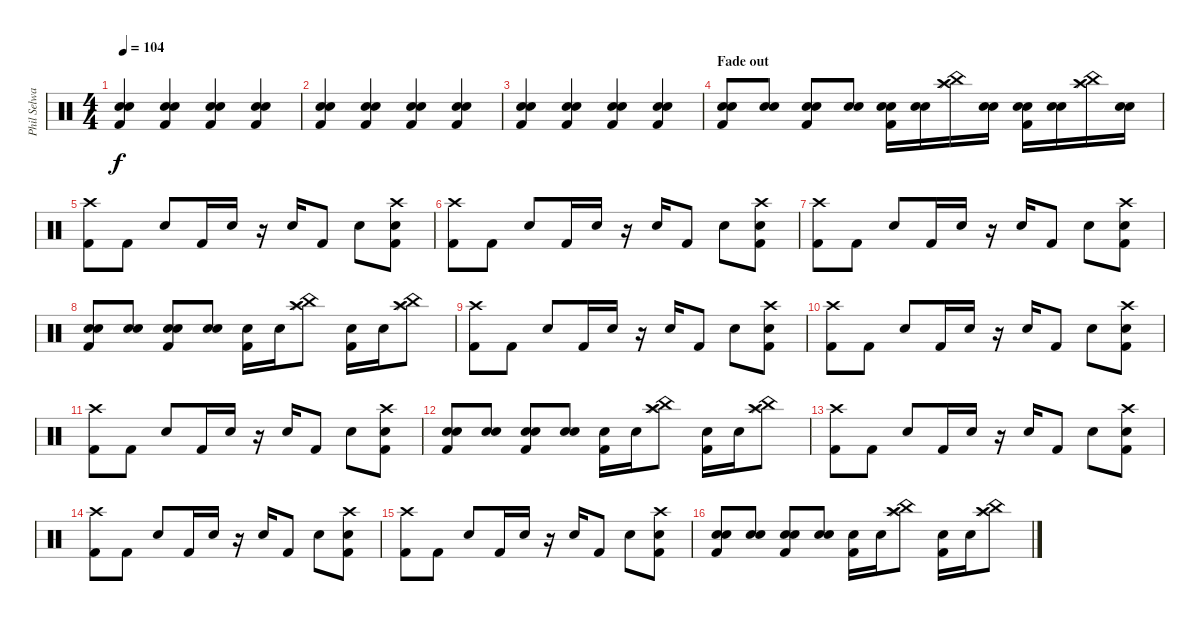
\track ("Phil Selway" "Phil Selwa") {instrument percussion}
\staff {score}
\articulation defaults
\ts (4 4)
\tempo 104
\clef neutral
\ks c
("Kick (hit) 2" "Hand Clap (hit)" "Snare (hit) 2").4{dy f} ("Kick (hit) 2" "Hand Clap (hit)" "Snare (hit) 2").4 ("Kick (hit) 2" "Hand Clap (hit)" "Snare (hit) 2").4 ("Kick (hit) 2" "Hand Clap (hit)" "Snare (hit) 2").4 |
("Kick (hit) 2" "Hand Clap (hit)" "Snare (hit) 2").4 ("Kick (hit) 2" "Hand Clap (hit)" "Snare (hit) 2").4 ("Kick (hit) 2" "Hand Clap (hit)" "Snare (hit) 2").4 ("Kick (hit) 2" "Hand Clap (hit)" "Snare (hit) 2").4 |
("Kick (hit) 2" "Hand Clap (hit)" "Snare (hit) 2").4 ("Kick (hit) 2" "Hand Clap (hit)" "Snare (hit) 2").4 ("Kick (hit) 2" "Hand Clap (hit)" "Snare (hit) 2").4 ("Kick (hit) 2" "Hand Clap (hit)" "Snare (hit) 2").4 |
\section ("" "Fade out")
("Electric Snare (hit)" "Snare (hit) 2" "Kick (hit) 2").8 ("Electric Snare (hit)" "Snare (hit) 2").8 ("Electric Snare (hit)" "Snare (hit) 2" "Kick (hit) 2").8 ("Electric Snare (hit)" "Snare (hit) 2").8 ("Electric Snare (hit)" "Kick (hit) 2" "Snare (hit) 2").16 ("Electric Snare (hit)" "Snare (hit) 2").16 ("Splash (hit)" "China (hit)" "Crash high (hit)").16 ("Electric Snare (hit)" "Snare (hit) 2").16 ("Electric Snare (hit)" "Kick (hit) 2" "Snare (hit) 2").16 ("Electric Snare (hit)" "Snare (hit) 2").16 ("Splash (hit)" "China (hit)" "Crash high (hit)").16 ("Electric Snare (hit)" "Snare (hit) 2").16 |
("Kick (hit) 2" "Crash high (hit)").8 "Kick (hit) 2".8 "Electric Snare (hit)".8 "Kick (hit) 2".16 "Electric Snare (hit)".16 r.16 "Electric Snare (hit)".16 "Kick (hit) 2".8 "Electric Snare (hit)".8 ("Kick (hit) 2" "Crash high (hit)" "Electric Snare (hit)").8 |
("Kick (hit) 2" "Crash high (hit)").8 "Kick (hit) 2".8 "Electric Snare (hit)".8 "Kick (hit) 2".16 "Electric Snare (hit)".16 r.16 "Electric Snare (hit)".16 "Kick (hit) 2".8 "Electric Snare (hit)".8 ("Kick (hit) 2" "Crash high (hit)" "Electric Snare (hit)").8 |
("Kick (hit) 2" "Crash high (hit)").8 "Kick (hit) 2".8 "Electric Snare (hit)".8 "Kick (hit) 2".16 "Electric Snare (hit)".16 r.16 "Electric Snare (hit)".16 "Kick (hit) 2".8 "Electric Snare (hit)".8 ("Kick (hit) 2" "Crash high (hit)" "Electric Snare (hit)").8 |
("Electric Snare (hit)" "Snare (hit) 2" "Kick (hit) 2").8 ("Electric Snare (hit)" "Snare (hit) 2").8 ("Electric Snare (hit)" "Snare (hit) 2" "Kick (hit) 2").8 ("Electric Snare (hit)" "Snare (hit) 2").8 ("Electric Snare (hit)" "Kick (hit) 2").16 "Electric Snare (hit)".16 ("Splash (hit)" "China (hit)" "Crash high (hit)").8 ("Electric Snare (hit)" "Kick (hit) 2").16 "Electric Snare (hit)".16 ("Splash (hit)" "China (hit)" "Crash high (hit)").8 |
("Kick (hit) 2" "Crash high (hit)").8 "Kick (hit) 2".8 "Electric Snare (hit)".8 "Kick (hit) 2".16 "Electric Snare (hit)".16 r.16 "Electric Snare (hit)".16 "Kick (hit) 2".8 "Electric Snare (hit)".8 ("Kick (hit) 2" "Crash high (hit)" "Electric Snare (hit)").8 |
("Kick (hit) 2" "Crash high (hit)").8 "Kick (hit) 2".8 "Electric Snare (hit)".8 "Kick (hit) 2".16 "Electric Snare (hit)".16 r.16 "Electric Snare (hit)".16 "Kick (hit) 2".8 "Electric Snare (hit)".8 ("Kick (hit) 2" "Crash high (hit)" "Electric Snare (hit)").8 |
("Kick (hit) 2" "Crash high (hit)").8 "Kick (hit) 2".8 "Electric Snare (hit)".8 "Kick (hit) 2".16 "Electric Snare (hit)".16 r.16 "Electric Snare (hit)".16 "Kick (hit) 2".8 "Electric Snare (hit)".8 ("Kick (hit) 2" "Crash high (hit)" "Electric Snare (hit)").8 |
("Electric Snare (hit)" "Snare (hit) 2" "Kick (hit) 2").8 ("Electric Snare (hit)" "Snare (hit) 2").8 ("Electric Snare (hit)" "Snare (hit) 2" "Kick (hit) 2").8 ("Electric Snare (hit)" "Snare (hit) 2").8 ("Electric Snare (hit)" "Kick (hit) 2").16 "Electric Snare (hit)".16 ("Splash (hit)" "China (hit)" "Crash high (hit)").8 ("Electric Snare (hit)" "Kick (hit) 2").16 "Electric Snare (hit)".16 ("Splash (hit)" "China (hit)" "Crash high (hit)").8 |
("Kick (hit) 2" "Crash high (hit)").8 "Kick (hit) 2".8 "Electric Snare (hit)".8 "Kick (hit) 2".16 "Electric Snare (hit)".16 r.16 "Electric Snare (hit)".16 "Kick (hit) 2".8 "Electric Snare (hit)".8 ("Kick (hit) 2" "Crash high (hit)" "Electric Snare (hit)").8 |
("Kick (hit) 2" "Crash high (hit)").8 "Kick (hit) 2".8 "Electric Snare (hit)".8 "Kick (hit) 2".16 "Electric Snare (hit)".16 r.16 "Electric Snare (hit)".16 "Kick (hit) 2".8 "Electric Snare (hit)".8 ("Kick (hit) 2" "Crash high (hit)" "Electric Snare (hit)").8 |
("Kick (hit) 2" "Crash high (hit)").8 "Kick (hit) 2".8 "Electric Snare (hit)".8 "Kick (hit) 2".16 "Electric Snare (hit)".16 r.16 "Electric Snare (hit)".16 "Kick (hit) 2".8 "Electric Snare (hit)".8 ("Kick (hit) 2" "Crash high (hit)" "Electric Snare (hit)").8 |
("Electric Snare (hit)" "Snare (hit) 2" "Kick (hit) 2").8 ("Electric Snare (hit)" "Snare (hit) 2").8 ("Electric Snare (hit)" "Snare (hit) 2" "Kick (hit) 2").8 ("Electric Snare (hit)" "Snare (hit) 2").8 ("Electric Snare (hit)" "Kick (hit) 2").16 "Electric Snare (hit)".16 ("Splash (hit)" "China (hit)" "Crash high (hit)").8 ("Electric Snare (hit)" "Kick (hit) 2").16 "Electric Snare (hit)".16 ("Splash (hit)" "China (hit)" "Crash high (hit)").8
